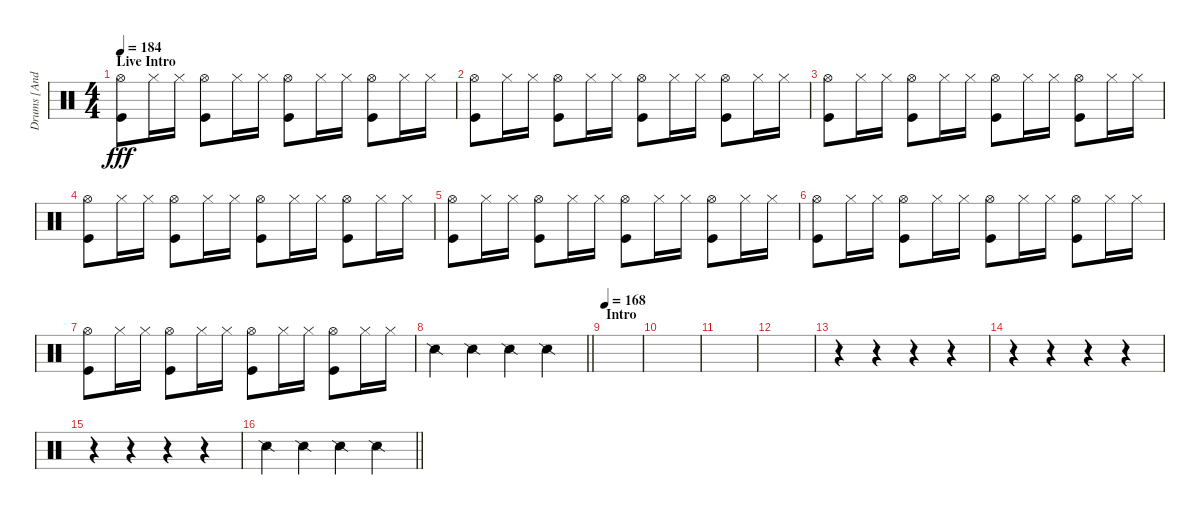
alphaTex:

\track ("Drums [Andrew Forsman]" "Drums [And") {instrument percussion}
\staff {score}
\articulation defaults
\ts (4 4)
\section ("" "Live Intro")
\tempo 184
\clef neutral
\ks c
("Hi-Hat (open)" "Kick (hit)").8{dy fff} "Hi-Hat (closed)".16 "Hi-Hat (closed)".16 ("Hi-Hat (open)" "Kick (hit)").8 "Hi-Hat (closed)".16 "Hi-Hat (closed)".16 ("Hi-Hat (open)" "Kick (hit)").8 "Hi-Hat (closed)".16 "Hi-Hat (closed)".16 ("Hi-Hat (open)" "Kick (hit)").8 "Hi-Hat (closed)".16 "Hi-Hat (closed)".16 |
("Hi-Hat (open)" "Kick (hit)").8 "Hi-Hat (closed)".16 "Hi-Hat (closed)".16 ("Hi-Hat (open)" "Kick (hit)").8 "Hi-Hat (closed)".16 "Hi-Hat (closed)".16 ("Hi-Hat (open)" "Kick (hit)").8 "Hi-Hat (closed)".16 "Hi-Hat (closed)".16 ("Hi-Hat (open)" "Kick (hit)").8 "Hi-Hat (closed)".16 "Hi-Hat (closed)".16 |
("Hi-Hat (open)" "Kick (hit)").8 "Hi-Hat (closed)".16 "Hi-Hat (closed)".16 ("Hi-Hat (open)" "Kick (hit)").8 "Hi-Hat (closed)".16 "Hi-Hat (closed)".16 ("Hi-Hat (open)" "Kick (hit)").8 "Hi-Hat (closed)".16 "Hi-Hat (closed)".16 ("Hi-Hat (open)" "Kick (hit)").8 "Hi-Hat (closed)".16 "Hi-Hat (closed)".16 |
("Hi-Hat (open)" "Kick (hit)").8 "Hi-Hat (closed)".16 "Hi-Hat (closed)".16 ("Hi-Hat (open)" "Kick (hit)").8 "Hi-Hat (closed)".16 "Hi-Hat (closed)".16 ("Hi-Hat (open)" "Kick (hit)").8 "Hi-Hat (closed)".16 "Hi-Hat (closed)".16 ("Hi-Hat (open)" "Kick (hit)").8 "Hi-Hat (closed)".16 "Hi-Hat (closed)".16 |
("Hi-Hat (open)" "Kick (hit)").8 "Hi-Hat (closed)".16 "Hi-Hat (closed)".16 ("Hi-Hat (open)" "Kick (hit)").8 "Hi-Hat (closed)".16 "Hi-Hat (closed)".16 ("Hi-Hat (open)" "Kick (hit)").8 "Hi-Hat (closed)".16 "Hi-Hat (closed)".16 ("Hi-Hat (open)" "Kick (hit)").8 "Hi-Hat (closed)".16 "Hi-Hat (closed)".16 |
("Hi-Hat (open)" "Kick (hit)").8 "Hi-Hat (closed)".16 "Hi-Hat (closed)".16 ("Hi-Hat (open)" "Kick (hit)").8 "Hi-Hat (closed)".16 "Hi-Hat (closed)".16 ("Hi-Hat (open)" "Kick (hit)").8 "Hi-Hat (closed)".16 "Hi-Hat (closed)".16 ("Hi-Hat (open)" "Kick (hit)").8 "Hi-Hat (closed)".16 "Hi-Hat (closed)".16 |
("Hi-Hat (open)" "Kick (hit)").8 "Hi-Hat (closed)".16 "Hi-Hat (closed)".16 ("Hi-Hat (open)" "Kick (hit)").8 "Hi-Hat (closed)".16 "Hi-Hat (closed)".16 ("Hi-Hat (open)" "Kick (hit)").8 "Hi-Hat (closed)".16 "Hi-Hat (closed)".16 ("Hi-Hat (open)" "Kick (hit)").8 "Hi-Hat (closed)".16 "Hi-Hat (closed)".16 |
\barLineRight lightlight "Snare (side stick) 2".4 "Snare (side stick) 2".4 "Snare (side stick) 2".4 "Snare (side stick) 2".4
|
\section ("" "Intro")
\tempo 168
|
|
|
|
r.4 r.4 r.4 r.4 |
r.4 r.4 r.4 r.4 |
r.4 r.4 r.4 r.4 |
\barLineRight lightlight "Snare (side stick) 2".4 "Snare (side stick) 2".4 "Snare (side stick) 2".4 "Snare (side stick) 2".4
